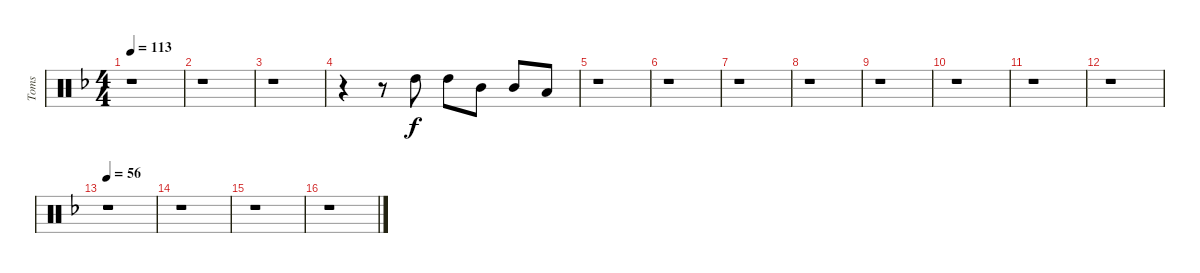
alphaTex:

\track ("Toms" "Toms") {instrument percussion}
\staff {score}
\articulation defaults
\ts (4 4)
\tempo 113
\clef neutral
\ks dminor
r.1{dy f} |
r.1 |
r.1 |
r.4 r.8 "High Tom (hit)".8 "High Tom (hit)".8 "Mid Tom (hit)".8 "Mid Tom (hit)".8 "Low Tom (hit)".8 |
r.1 |
r.1 |
r.1 |
r.1 |
r.1 |
r.1 |
r.1 |
r.1 |
\tempo 56
r.1 |
r.1 |
r.1 |
r.1
